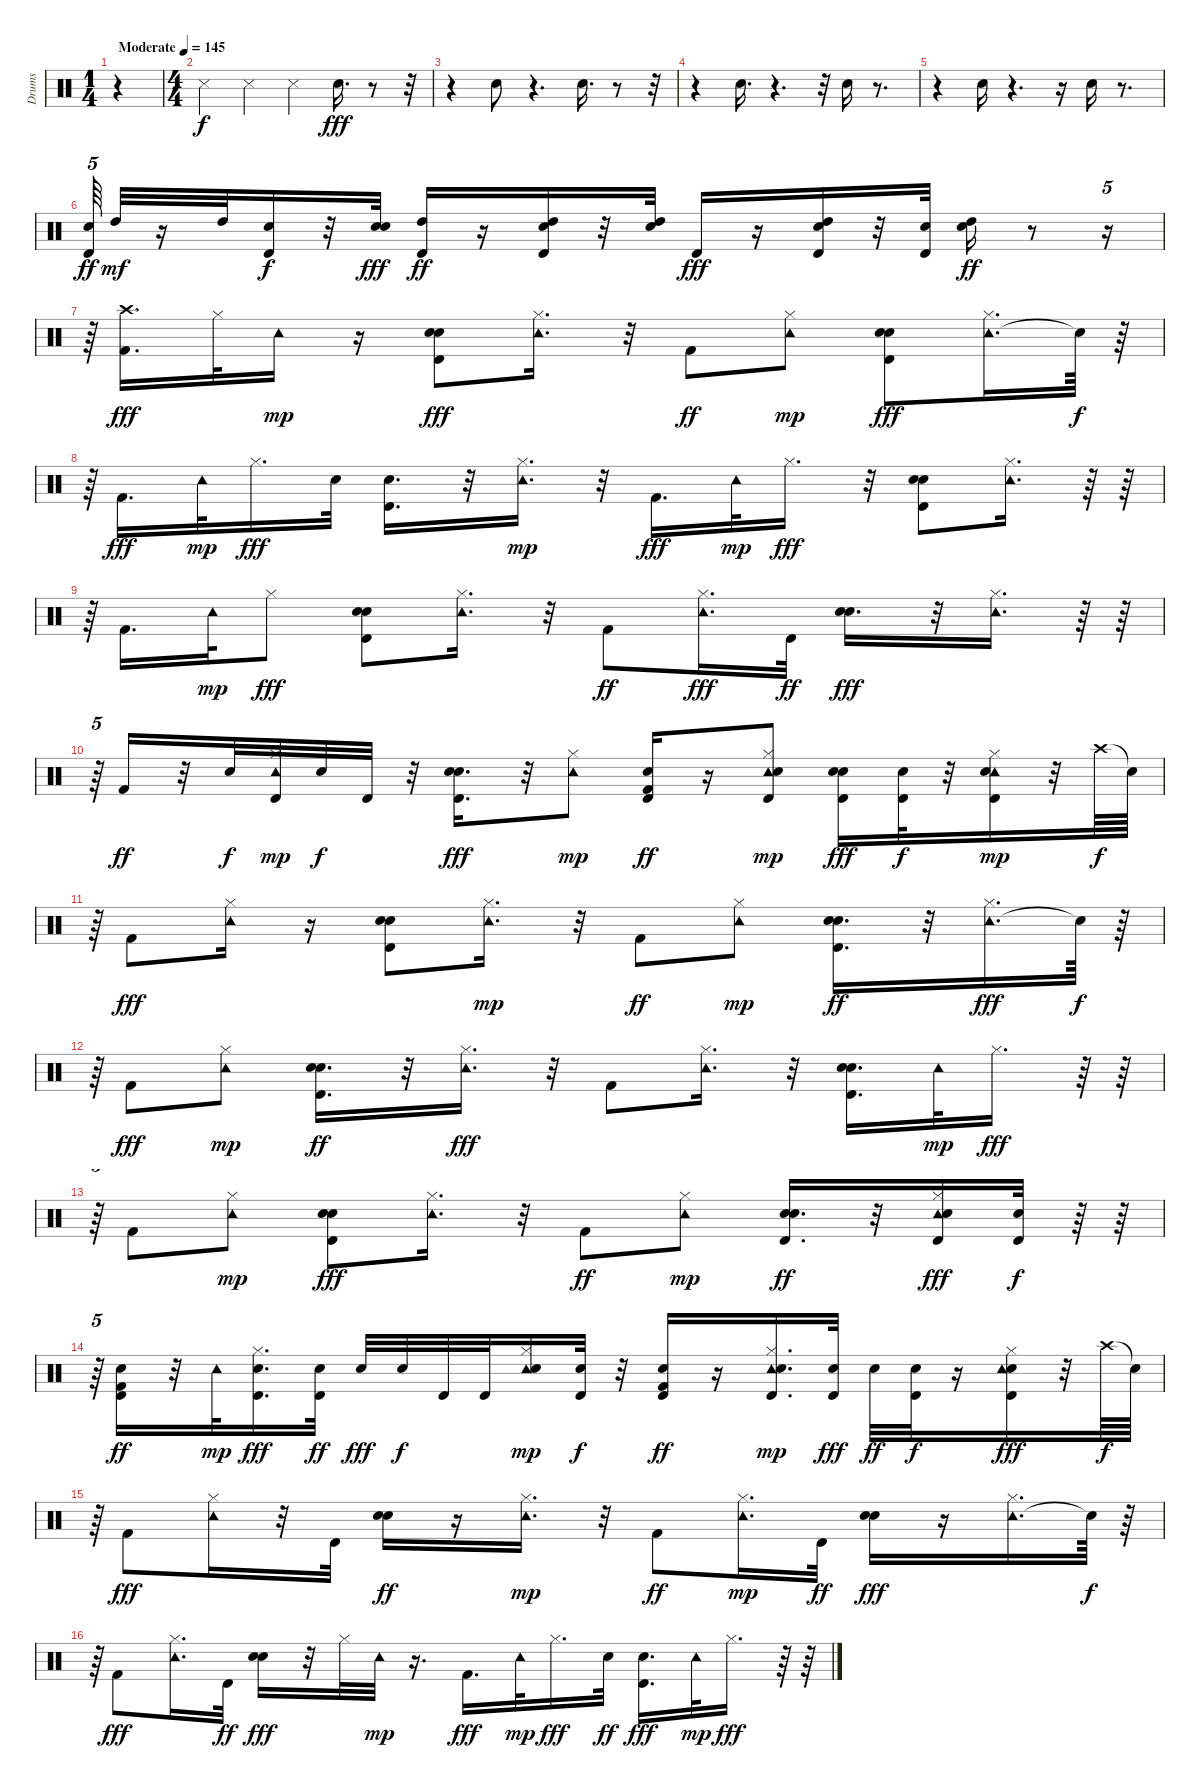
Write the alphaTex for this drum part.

\track ("Drums" "Drums") {instrument percussion}
\staff {score}
\articulation defaults
\ts (1 4)
\tempo (145 "Moderate")
\clef neutral
\ks c
r.4{dy f} |
\ts (4 4)
"Snare (side stick) 3".4 "Snare (side stick) 3".4 "Snare (side stick) 3".4 "Hand Clap (hit)".16{d dy fff} r.8 r.32 |
r.4 "Hand Clap (hit)".8 r.4{d} "Hand Clap (hit)".16{d} r.8 r.32 |
r.4 "Hand Clap (hit)".16{d} r.4{d} r.32 "Hand Clap (hit)".16 r.8{d} |
r.4 "Hand Clap (hit)".16 r.4{d} r.16 "Hand Clap (hit)".16 r.8{d} |
("Timbale high (hit)" "Snare (hit) 2").64{tu (5 4) dy ff} "High Tom (hit)".32{dy mf} r.16 "High Tom (hit)".32 ("Snare (hit) 2" "Timbale high (hit)").16{dy f} r.32 ("Snare (hit) 2" "Hand Clap (hit)").32{dy fff} ("High Tom (hit)" "Timbale high (hit)").16{dy ff} r.16 ("Snare (hit) 2" "High Tom (hit)" "Timbale high (hit)").16 r.32 ("Snare (hit) 2" "High Tom (hit)").32 "Timbale high (hit)".16{dy fff} r.16 ("High Tom (hit)" "Snare (hit) 2" "Timbale high (hit)").16 r.32 ("Snare (hit) 2" "Timbale high (hit)").32 ("Hand Clap (hit)" "High Tom (hit)").16{dy ff} r.8 r.16{tu (5 4)} |
r.64{tu (5 4)} ("Kick (hit) 2" "Crash high (hit)").16{d dy fff} "Hi-Hat (closed)".32 "Tambourine (hit)".16{dy mp} r.16 ("Timbale high (hit)" "Snare (hit) 2" "Hand Clap (hit)").8{dy fff} ("Tambourine (hit)" "Hi-Hat (closed)").16{d} r.32 "Kick (hit) 2".8{dy ff} ("Hi-Hat (closed)" "Tambourine (hit)").8{dy mp} ("Timbale high (hit)" "Hand Clap (hit)" "Snare (hit) 2").8{dy fff} ("Tambourine (hit)" "Hi-Hat (closed)").16{d} "Snare (hit)"{t}.64{dy f} r.64 |
r.64{tu (5 4)} "Kick (hit) 2".16{d dy fff} "Tambourine (hit)".32{dy mp} "Hi-Hat (closed)".16{d dy fff} "Hand Clap (hit)".32 ("Timbale high (hit)" "Snare (hit) 2").16{d} r.32 ("Hi-Hat (closed)" "Tambourine (hit)").16{d dy mp} r.32 "Kick (hit) 2".16{d dy fff} "Tambourine (hit)".32{dy mp} "Hi-Hat (closed)".16{d dy fff} r.32 ("Snare (hit) 2" "Timbale high (hit)" "Hand Clap (hit)").8 ("Tambourine (hit)" "Hi-Hat (closed)").16{d} r.64 r.64 |
r.64{tu (5 4)} "Kick (hit) 2".16{d} "Tambourine (hit)".32{dy mp} "Hi-Hat (closed)".8{dy fff} ("Snare (hit) 2" "Timbale high (hit)" "Hand Clap (hit)").8 ("Tambourine (hit)" "Hi-Hat (closed)").16{d} r.32 "Kick (hit) 2".8{dy ff} ("Tambourine (hit)" "Hi-Hat (closed)").16{d dy fff} "Timbale high (hit)".32{dy ff} ("Snare (hit) 2" "Hand Clap (hit)").16{d dy fff} r.32 ("Tambourine (hit)" "Hi-Hat (closed)").16{d} r.64 r.64 |
r.64{tu (5 4)} "Kick (hit) 2".16{dy ff} r.32 "Snare (hit) 2".32{dy f} ("Hi-Hat (closed)" "Tambourine (hit)" "Timbale high (hit)").32{dy mp} "Snare (hit) 2".32{dy f} "Timbale high (hit)".32 r.32 ("Timbale high (hit)" "Snare (hit) 2" "Hand Clap (hit)").16{d dy fff} r.32 ("Hi-Hat (closed)" "Tambourine (hit)").8{dy mp} ("Kick (hit) 2" "Timbale high (hit)" "Snare (hit) 2").16{dy ff} r.16 ("Timbale high (hit)" "Hi-Hat (closed)" "Tambourine (hit)" "Snare (hit) 2").8{dy mp} ("Timbale high (hit)" "Snare (hit) 2" "Hand Clap (hit)").16{dy fff} ("Snare (hit) 2" "Timbale high (hit)").32{dy f} r.32 ("Hi-Hat (closed)" "Timbale high (hit)" "Tambourine (hit)" "Snare (hit) 2").16{dy mp} r.32 "Crash high (hit)".64{dy f} "Snare (hit)"{t}.64 |
r.64{tu (5 4)} "Kick (hit) 2".8{dy fff} ("Tambourine (hit)" "Hi-Hat (closed)").16 r.16 ("Snare (hit) 2" "Timbale high (hit)" "Hand Clap (hit)").8 ("Hi-Hat (closed)" "Tambourine (hit)").16{d dy mp} r.32 "Kick (hit) 2".8{dy ff} ("Hi-Hat (closed)" "Tambourine (hit)").8{dy mp} ("Snare (hit) 2" "Hand Clap (hit)" "Timbale high (hit)").16{d dy ff} r.32 ("Tambourine (hit)" "Hi-Hat (closed)").16{d dy fff} "Snare (hit)"{t}.64{dy f} r.64 |
r.64{tu (5 4)} "Kick (hit) 2".8{dy fff} ("Hi-Hat (closed)" "Tambourine (hit)").8{dy mp} ("Hand Clap (hit)" "Snare (hit) 2" "Timbale high (hit)").16{d dy ff} r.32 ("Tambourine (hit)" "Hi-Hat (closed)").16{d dy fff} r.32 "Kick (hit) 2".8 ("Tambourine (hit)" "Hi-Hat (closed)").16{d} r.32 ("Snare (hit) 2" "Timbale high (hit)" "Hand Clap (hit)").16{d} "Tambourine (hit)".32{dy mp} "Hi-Hat (closed)".16{d dy fff} r.64 r.64 |
r.64{tu (5 4)} "Kick (hit) 2".8 ("Hi-Hat (closed)" "Tambourine (hit)").8{dy mp} ("Snare (hit) 2" "Hand Clap (hit)" "Timbale high (hit)").8{dy fff} ("Tambourine (hit)" "Hi-Hat (closed)").16{d} r.32 "Kick (hit) 2".8{dy ff} ("Hi-Hat (closed)" "Tambourine (hit)").8{dy mp} ("Hand Clap (hit)" "Snare (hit) 2" "Timbale high (hit)").16{d dy ff} r.32 ("Tambourine (hit)" "Snare (hit) 2" "Timbale high (hit)" "Hi-Hat (closed)").16{dy fff} ("Snare (hit) 2" "Timbale high (hit)").32{dy f} r.64 r.64 |
r.64{tu (5 4)} ("Snare (hit) 2" "Timbale high (hit)" "Kick (hit) 2").16{dy ff} r.32 "Tambourine (hit)".32{dy mp} ("Timbale high (hit)" "Snare (hit) 2" "Hi-Hat (closed)").16{d dy fff} ("Snare (hit) 2" "Timbale high (hit)").32{dy ff} "Hand Clap (hit)".32{dy fff} "Snare (hit) 2".32{dy f} "Timbale high (hit)".32 "Timbale high (hit)".32 ("Hi-Hat (closed)" "Tambourine (hit)" "Snare (hit) 2").16{dy mp} ("Snare (hit) 2" "Timbale high (hit)").32{dy f} r.32 ("Timbale high (hit)" "Kick (hit) 2" "Snare (hit) 2").16{dy ff} r.16 ("Hi-Hat (closed)" "Timbale high (hit)" "Tambourine (hit)" "Snare (hit) 2").16{d dy mp} ("Timbale high (hit)" "Hand Clap (hit)").32{dy fff} "Snare (hit) 2".32{dy ff} ("Snare (hit) 2" "Timbale high (hit)").32{dy f} r.16 ("Snare (hit) 2" "Timbale high (hit)" "Tambourine (hit)" "Hi-Hat (closed)").16{dy fff} r.32 "Crash high (hit)".64{dy f} "Snare (hit)"{t}.64 |
r.64{tu (5 4)} "Kick (hit) 2".8{dy fff} ("Tambourine (hit)" "Hi-Hat (closed)").16 r.32 "Timbale high (hit)".32 ("Hand Clap (hit)" "Snare (hit) 2").16{dy ff} r.16 ("Hi-Hat (closed)" "Tambourine (hit)").16{d dy mp} r.32 "Kick (hit) 2".8{dy ff} ("Hi-Hat (closed)" "Tambourine (hit)").16{d dy mp} "Timbale high (hit)".32{dy ff} ("Snare (hit) 2" "Hand Clap (hit)").16{dy fff} r.16 ("Tambourine (hit)" "Hi-Hat (closed)").16{d} "Snare (hit)"{t}.64{dy f} r.64 |
r.64{tu (5 4)} "Kick (hit) 2".8{dy fff} ("Tambourine (hit)" "Hi-Hat (closed)").16{d} "Timbale high (hit)".32{dy ff} ("Snare (hit) 2" "Hand Clap (hit)").16{dy fff} r.32 "Hi-Hat (closed)".32 "Tambourine (hit)".32{dy mp} r.16{d} "Kick (hit) 2".16{d dy fff} "Tambourine (hit)".32{dy mp} "Hi-Hat (closed)".16{d dy fff} "Snare (hit) 2".32{dy ff} ("Timbale high (hit)" "Hand Clap (hit)").16{d dy fff} "Tambourine (hit)".32{dy mp} "Hi-Hat (closed)".16{d dy fff} r.64 r.64
